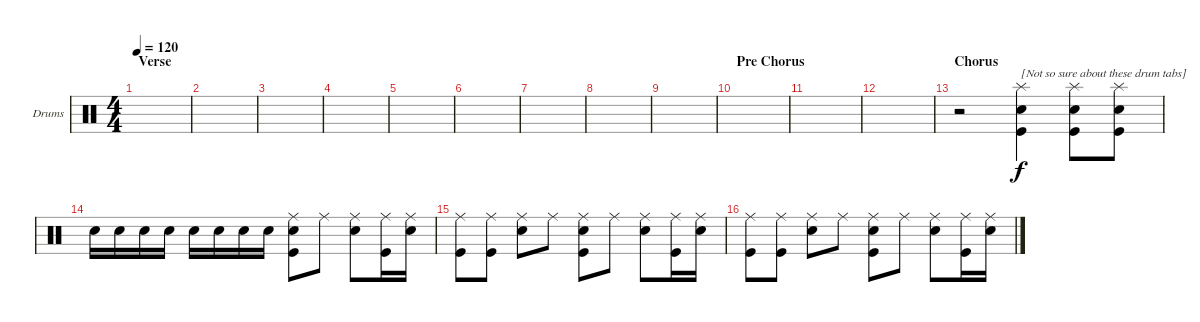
\defaultSystemsLayout 4
\bracketExtendMode groupsimilarinstruments
\firstSystemTrackNameOrientation horizontal
\otherSystemsTrackNameOrientation horizontal
\track ("Drumkit" "Drums") {instrument percussion}
\staff {score}
\articulation defaults
\ts (4 4)
\section ("" "Verse")
\tempo 120
\clef neutral
\scale
0.333333
\ks c
|
\scale
0.333333 |
\scale
0.333333 |
\scale
0.333333 |
\scale
0.333333 |
\scale
0.333333 |
\scale
0.333333 |
\scale
0.333333 |
\scale
0.333333 |
\section ("" "Pre Chorus")
\scale
0.333333 |
\scale
0.333333 |
\scale
0.333333 |
\section ("" "Chorus")
\scale
0.333333 r.2 ("Snare (hit) 2" "Kick (hit)" "Splash (hit)").4{txt "[Not so sure about these drum tabs]"} ("Snare (hit) 2" "Kick (hit)" "Splash (hit)").8 ("Kick (hit)" "Snare (hit) 2" "Splash (hit)").8 |
\scale
0.333333 "Snare (hit) 2".16 "Snare (hit) 2".16 "Snare (hit) 2".16 "Snare (hit) 2".16 "Snare (hit) 2".16 "Snare (hit) 2".16 "Snare (hit) 2".16 "Snare (hit) 2".16 ("Snare (hit) 2" "Kick (hit)" "Ride (middle)").8 "Ride (middle)".8 ("Ride (middle)" "Snare (hit) 2").8 ("Ride (middle)" "Kick (hit)").16 ("Snare (hit) 2" "Ride (middle)").16 |
\scale
0.333333 ("Ride (middle)" "Kick (hit)").8 ("Ride (middle)" "Kick (hit)").8 ("Ride (middle)" "Snare (hit) 2").8 "Ride (middle)".8 ("Ride (middle)" "Snare (hit) 2" "Kick (hit)").8 "Ride (middle)".8 ("Ride (middle)" "Snare (hit) 2").8 ("Ride (middle)" "Kick (hit)").16 ("Ride (middle)" "Snare (hit) 2").16 |
\scale
0.333333 ("Ride (middle)" "Kick (hit)").8 ("Ride (middle)" "Kick (hit)").8 ("Ride (middle)" "Snare (hit) 2").8 "Ride (middle)".8 ("Ride (middle)" "Snare (hit) 2" "Kick (hit)").8 "Ride (middle)".8 ("Ride (middle)" "Snare (hit) 2").8 ("Ride (middle)" "Kick (hit)").16 ("Snare (hit) 2" "Ride (middle)").16
